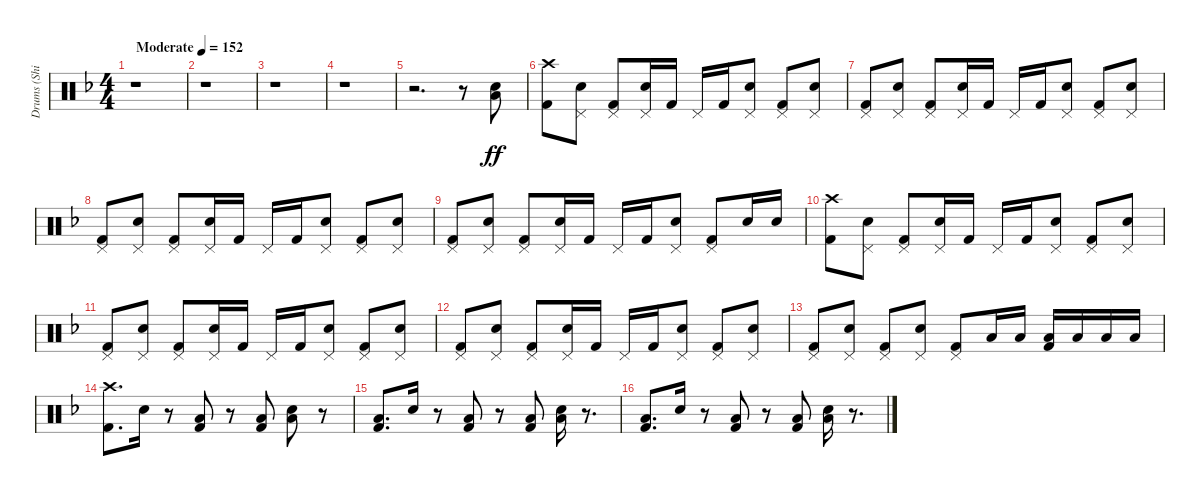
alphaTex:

\track ("Drums (Shinya ! Shinya !)" "Drums (Shi") {instrument percussion}
\staff {score}
\articulation defaults
\ts (4 4)
\tempo (152 "Moderate")
\clef neutral
\ks f
r.1{dy ff} |
r.1 |
r.1 |
r.1 |
r.2{d} r.8 ("Snare (hit) 2" "Low Floor Tom (hit)").8 |
("Kick (hit) 2" "Crash high (hit)").8 ("Pedal Hi-Hat (hit)" "Electric Snare (hit)").8 ("Kick (hit) 2" "Pedal Hi-Hat (hit)").8 ("Pedal Hi-Hat (hit)" "Electric Snare (hit)").16 "Kick (hit) 2".16 "Pedal Hi-Hat (hit)".16 "Kick (hit) 2".16 ("Pedal Hi-Hat (hit)" "Electric Snare (hit)").8 ("Kick (hit) 2" "Pedal Hi-Hat (hit)").8 ("Pedal Hi-Hat (hit)" "Electric Snare (hit)").8 |
("Kick (hit) 2" "Pedal Hi-Hat (hit)").8 ("Pedal Hi-Hat (hit)" "Electric Snare (hit)").8 ("Kick (hit) 2" "Pedal Hi-Hat (hit)").8 ("Pedal Hi-Hat (hit)" "Electric Snare (hit)").16 "Kick (hit) 2".16 "Pedal Hi-Hat (hit)".16 "Kick (hit) 2".16 ("Pedal Hi-Hat (hit)" "Electric Snare (hit)").8 ("Kick (hit) 2" "Pedal Hi-Hat (hit)").8 ("Pedal Hi-Hat (hit)" "Electric Snare (hit)").8 |
("Kick (hit) 2" "Pedal Hi-Hat (hit)").8 ("Pedal Hi-Hat (hit)" "Electric Snare (hit)").8 ("Kick (hit) 2" "Pedal Hi-Hat (hit)").8 ("Pedal Hi-Hat (hit)" "Electric Snare (hit)").16 "Kick (hit) 2".16 "Pedal Hi-Hat (hit)".16 "Kick (hit) 2".16 ("Pedal Hi-Hat (hit)" "Electric Snare (hit)").8 ("Kick (hit) 2" "Pedal Hi-Hat (hit)").8 ("Pedal Hi-Hat (hit)" "Electric Snare (hit)").8 |
("Kick (hit) 2" "Pedal Hi-Hat (hit)").8 ("Pedal Hi-Hat (hit)" "Electric Snare (hit)").8 ("Kick (hit) 2" "Pedal Hi-Hat (hit)").8 ("Pedal Hi-Hat (hit)" "Electric Snare (hit)").16 "Kick (hit) 2".16 "Pedal Hi-Hat (hit)".16 "Kick (hit) 2".16 ("Pedal Hi-Hat (hit)" "Electric Snare (hit)").8 ("Kick (hit) 2" "Pedal Hi-Hat (hit)").8 "Electric Snare (hit)".16 "Electric Snare (hit)".16 |
("Kick (hit) 2" "Crash high (hit)").8 ("Pedal Hi-Hat (hit)" "Electric Snare (hit)").8 ("Kick (hit) 2" "Pedal Hi-Hat (hit)").8 ("Pedal Hi-Hat (hit)" "Electric Snare (hit)").16 "Kick (hit) 2".16 "Pedal Hi-Hat (hit)".16 "Kick (hit) 2".16 ("Pedal Hi-Hat (hit)" "Electric Snare (hit)").8 ("Kick (hit) 2" "Pedal Hi-Hat (hit)").8 ("Pedal Hi-Hat (hit)" "Electric Snare (hit)").8 |
("Kick (hit) 2" "Pedal Hi-Hat (hit)").8 ("Pedal Hi-Hat (hit)" "Electric Snare (hit)").8 ("Kick (hit) 2" "Pedal Hi-Hat (hit)").8 ("Pedal Hi-Hat (hit)" "Electric Snare (hit)").16 "Kick (hit) 2".16 "Pedal Hi-Hat (hit)".16 "Kick (hit) 2".16 ("Pedal Hi-Hat (hit)" "Electric Snare (hit)").8 ("Kick (hit) 2" "Pedal Hi-Hat (hit)").8 ("Pedal Hi-Hat (hit)" "Electric Snare (hit)").8 |
("Kick (hit) 2" "Pedal Hi-Hat (hit)").8 ("Pedal Hi-Hat (hit)" "Electric Snare (hit)").8 ("Kick (hit) 2" "Pedal Hi-Hat (hit)").8 ("Pedal Hi-Hat (hit)" "Electric Snare (hit)").16 "Kick (hit) 2".16 "Pedal Hi-Hat (hit)".16 "Kick (hit) 2".16 ("Pedal Hi-Hat (hit)" "Electric Snare (hit)").8 ("Kick (hit) 2" "Pedal Hi-Hat (hit)").8 ("Pedal Hi-Hat (hit)" "Electric Snare (hit)").8 |
("Kick (hit) 2" "Pedal Hi-Hat (hit)").8 ("Pedal Hi-Hat (hit)" "Electric Snare (hit)").8 ("Kick (hit) 2" "Pedal Hi-Hat (hit)").8 ("Pedal Hi-Hat (hit)" "Electric Snare (hit)").8 ("Pedal Hi-Hat (hit)" "Kick (hit) 2").8 "Low Tom (hit)".16 "Low Tom (hit)".16 ("Kick (hit) 2" "Low Tom (hit)").16 "Low Tom (hit)".16 "Low Floor Tom (hit)".16 "Low Floor Tom (hit)".16 |
("Kick (hit) 2" "Crash high (hit)").8{d} "Electric Snare (hit)".16 r.8 ("Kick (hit) 2" "Low Floor Tom (hit)").8 r.8 ("Kick (hit) 2" "Low Floor Tom (hit)").8 ("Electric Snare (hit)" "Low Tom (hit)").8 r.8 |
("Kick (hit) 2" "Low Floor Tom (hit)").8{d} "Electric Snare (hit)".16 r.8 ("Kick (hit) 2" "Low Floor Tom (hit)").8 r.8 ("Kick (hit) 2" "Low Floor Tom (hit)").8 ("Electric Snare (hit)" "Low Tom (hit)").16 r.8{d} |
("Kick (hit) 2" "Low Floor Tom (hit)").8{d} "Electric Snare (hit)".16 r.8 ("Kick (hit) 2" "Low Floor Tom (hit)").8 r.8 ("Kick (hit) 2" "Low Floor Tom (hit)").8 ("Electric Snare (hit)" "Low Tom (hit)").16 r.8{d}
